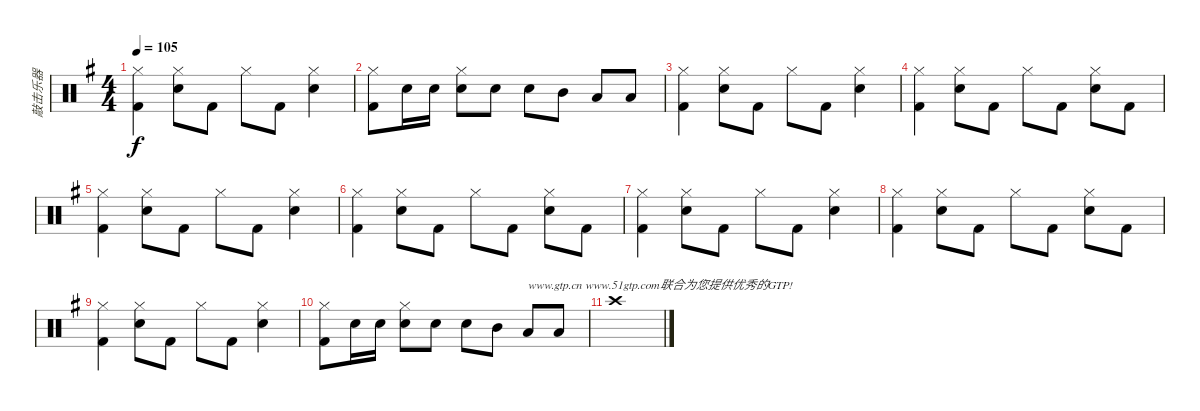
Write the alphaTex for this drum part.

\track ("敲击乐器" "敲击乐器") {instrument percussion}
\staff {score}
\articulation defaults
\ts (4 4)
\tempo 105
\clef neutral
\ks g
("Hi-Hat (closed)" "Kick (hit) 2").4{dy f} ("Hi-Hat (closed)" "Snare (hit) 2").8 "Kick (hit) 2".8 "Hi-Hat (closed)".8 "Kick (hit) 2".8 ("Hi-Hat (closed)" "Snare (hit) 2").4 |
("Hi-Hat (closed)" "Kick (hit) 2").8 "Snare (hit) 2".16 "Snare (hit) 2".16 ("Hi-Hat (closed)" "Snare (hit) 2").8 "Snare (hit) 2".8 "Snare (hit) 2".8 "Mid Tom (hit)".8 "Low Tom (hit)".8 "Low Floor Tom (hit)".8 |
("Hi-Hat (closed)" "Kick (hit) 2").4 ("Hi-Hat (closed)" "Snare (hit) 2").8 "Kick (hit) 2".8 "Hi-Hat (closed)".8 "Kick (hit) 2".8 ("Hi-Hat (closed)" "Snare (hit) 2").4 |
("Hi-Hat (closed)" "Kick (hit) 2").4 ("Hi-Hat (closed)" "Snare (hit) 2").8 "Kick (hit) 2".8 "Hi-Hat (closed)".8 "Kick (hit) 2".8 ("Hi-Hat (closed)" "Snare (hit) 2").8 "Kick (hit) 2".8 |
("Hi-Hat (closed)" "Kick (hit) 2").4 ("Hi-Hat (closed)" "Snare (hit) 2").8 "Kick (hit) 2".8 "Hi-Hat (closed)".8 "Kick (hit) 2".8 ("Hi-Hat (closed)" "Snare (hit) 2").4 |
("Hi-Hat (closed)" "Kick (hit) 2").4 ("Hi-Hat (closed)" "Snare (hit) 2").8 "Kick (hit) 2".8 "Hi-Hat (closed)".8 "Kick (hit) 2".8 ("Hi-Hat (closed)" "Snare (hit) 2").8 "Kick (hit) 2".8 |
("Hi-Hat (closed)" "Kick (hit) 2").4 ("Hi-Hat (closed)" "Snare (hit) 2").8 "Kick (hit) 2".8 "Hi-Hat (closed)".8 "Kick (hit) 2".8 ("Hi-Hat (closed)" "Snare (hit) 2").4 |
("Hi-Hat (closed)" "Kick (hit) 2").4 ("Hi-Hat (closed)" "Snare (hit) 2").8 "Kick (hit) 2".8 "Hi-Hat (closed)".8 "Kick (hit) 2".8 ("Hi-Hat (closed)" "Snare (hit) 2").8 "Kick (hit) 2".8 |
("Hi-Hat (closed)" "Kick (hit) 2").4 ("Hi-Hat (closed)" "Snare (hit) 2").8 "Kick (hit) 2".8 "Hi-Hat (closed)".8 "Kick (hit) 2".8 ("Hi-Hat (closed)" "Snare (hit) 2").4 |
("Hi-Hat (closed)" "Kick (hit) 2").8 "Snare (hit) 2".16 "Snare (hit) 2".16 ("Hi-Hat (closed)" "Snare (hit) 2").8 "Snare (hit) 2".8 "Snare (hit) 2".8 "Mid Tom (hit)".8 "Low Tom (hit)".8{txt "www.gtp.cn www.51gtp.com联合为您提供优秀的GTP!"} "Low Floor Tom (hit)".8 |
"Crash high (hit)".1
